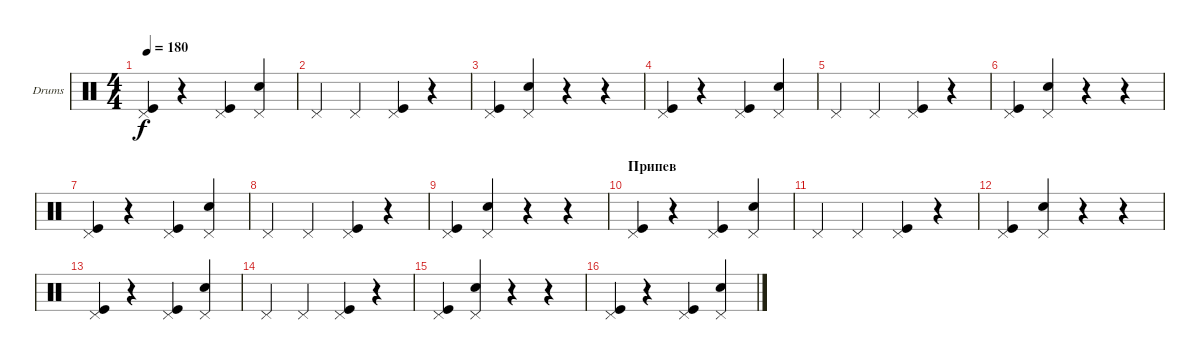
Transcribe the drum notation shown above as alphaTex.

\defaultSystemsLayout 4
\bracketExtendMode groupsimilarinstruments
\firstSystemTrackNameOrientation horizontal
\otherSystemsTrackNameOrientation horizontal
\track ("Георгий Гурьянов" "Drums") {instrument percussion}
\staff {score}
\articulation defaults
\ts (4 4)
\tempo 180
\clef neutral
\ks c
("Pedal Hi-Hat (hit)" "Kick (hit)").4{dy f} r.4 ("Pedal Hi-Hat (hit)" "Kick (hit)").4 ("Pedal Hi-Hat (hit)" "Snare (hit) 2").4 |
"Pedal Hi-Hat (hit)".4 "Pedal Hi-Hat (hit)".4 ("Pedal Hi-Hat (hit)" "Kick (hit)").4 r.4 |
("Pedal Hi-Hat (hit)" "Kick (hit)").4 ("Pedal Hi-Hat (hit)" "Snare (hit) 2").4 r.4 r.4 |
("Pedal Hi-Hat (hit)" "Kick (hit)").4 r.4 ("Pedal Hi-Hat (hit)" "Kick (hit)").4 ("Pedal Hi-Hat (hit)" "Snare (hit) 2").4 |
"Pedal Hi-Hat (hit)".4 "Pedal Hi-Hat (hit)".4 ("Pedal Hi-Hat (hit)" "Kick (hit)").4 r.4 |
("Pedal Hi-Hat (hit)" "Kick (hit)").4 ("Pedal Hi-Hat (hit)" "Snare (hit) 2").4 r.4 r.4 |
("Pedal Hi-Hat (hit)" "Kick (hit)").4 r.4 ("Pedal Hi-Hat (hit)" "Kick (hit)").4 ("Pedal Hi-Hat (hit)" "Snare (hit) 2").4 |
"Pedal Hi-Hat (hit)".4 "Pedal Hi-Hat (hit)".4 ("Pedal Hi-Hat (hit)" "Kick (hit)").4 r.4 |
("Pedal Hi-Hat (hit)" "Kick (hit)").4 ("Pedal Hi-Hat (hit)" "Snare (hit) 2").4 r.4 r.4 |
\section ("" "Припев")
("Pedal Hi-Hat (hit)" "Kick (hit)").4 r.4 ("Pedal Hi-Hat (hit)" "Kick (hit)").4 ("Pedal Hi-Hat (hit)" "Snare (hit) 2").4 |
"Pedal Hi-Hat (hit)".4 "Pedal Hi-Hat (hit)".4 ("Pedal Hi-Hat (hit)" "Kick (hit)").4 r.4 |
("Pedal Hi-Hat (hit)" "Kick (hit)").4 ("Pedal Hi-Hat (hit)" "Snare (hit) 2").4 r.4 r.4 |
("Pedal Hi-Hat (hit)" "Kick (hit)").4 r.4 ("Pedal Hi-Hat (hit)" "Kick (hit)").4 ("Pedal Hi-Hat (hit)" "Snare (hit) 2").4 |
"Pedal Hi-Hat (hit)".4 "Pedal Hi-Hat (hit)".4 ("Pedal Hi-Hat (hit)" "Kick (hit)").4 r.4 |
("Pedal Hi-Hat (hit)" "Kick (hit)").4 ("Pedal Hi-Hat (hit)" "Snare (hit) 2").4 r.4 r.4 |
("Pedal Hi-Hat (hit)" "Kick (hit)").4 r.4 ("Pedal Hi-Hat (hit)" "Kick (hit)").4 ("Pedal Hi-Hat (hit)" "Snare (hit) 2").4
